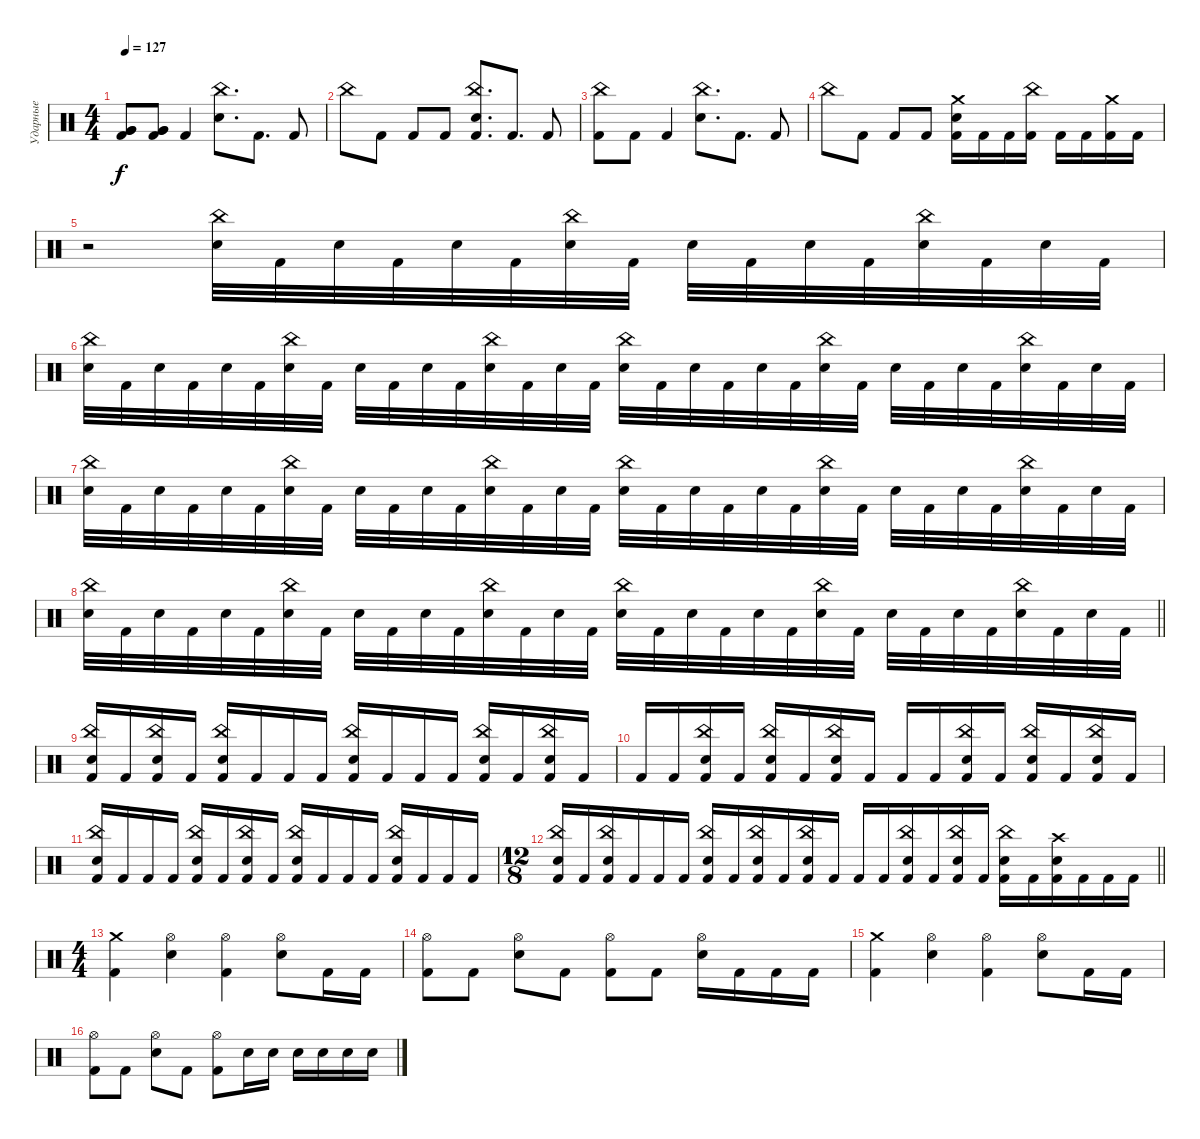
\track ("Ударные" "Ударные") {instrument percussion}
\staff {score}
\articulation defaults
\ts (4 4)
\section ("" "")
\tempo 127
\clef neutral
\ks c
("Very Low Tom (hit)" "Very Low Tom (hit)" "Kick (hit) 2").8{dy f} ("Very Low Tom (hit)" "Very Low Tom (hit)" "Kick (hit) 2").8 "Kick (hit) 2".4 ("China (hit)" "Electric Snare (hit)").8{d} "Kick (hit) 2".8{d} "Kick (hit) 2".8 |
"China (hit)".8 "Kick (hit) 2".8 "Kick (hit) 2".8 "Kick (hit) 2".8 ("China (hit)" "Electric Snare (hit)" "Kick (hit) 2").8{d} "Kick (hit) 2".8{d} "Kick (hit) 2".8 |
("China (hit)" "Kick (hit) 2").8 "Kick (hit) 2".8 "Kick (hit) 2".4 ("China (hit)" "Electric Snare (hit)").8{d} "Kick (hit) 2".8{d} "Kick (hit) 2".8 |
"China (hit)".8 "Kick (hit) 2".8 "Kick (hit) 2".8 "Kick (hit) 2".8 ("Crash medium (hit)" "Electric Snare (hit)" "Kick (hit) 2").16 "Kick (hit) 2".16 "Kick (hit) 2".16 ("China (hit)" "Kick (hit) 2").16 "Kick (hit) 2".16 "Kick (hit) 2".16 ("Crash medium (hit)" "Kick (hit) 2").16 "Kick (hit) 2".16 |
r.2 ("China (hit)" "Electric Snare (hit)").32 "Kick (hit) 2".32 "Electric Snare (hit)".32 "Kick (hit) 2".32 "Electric Snare (hit)".32 "Kick (hit) 2".32 ("China (hit)" "Electric Snare (hit)").32 "Kick (hit) 2".32 "Electric Snare (hit)".32 "Kick (hit) 2".32 "Electric Snare (hit)".32 "Kick (hit) 2".32 ("China (hit)" "Electric Snare (hit)").32 "Kick (hit) 2".32 "Electric Snare (hit)".32 "Kick (hit) 2".32 |
("China (hit)" "Electric Snare (hit)").32 "Kick (hit) 2".32 "Electric Snare (hit)".32 "Kick (hit) 2".32 "Electric Snare (hit)".32 "Kick (hit) 2".32 ("China (hit)" "Electric Snare (hit)").32 "Kick (hit) 2".32 "Electric Snare (hit)".32 "Kick (hit) 2".32 "Electric Snare (hit)".32 "Kick (hit) 2".32 ("China (hit)" "Electric Snare (hit)").32 "Kick (hit) 2".32 "Electric Snare (hit)".32 "Kick (hit) 2".32 ("China (hit)" "Electric Snare (hit)").32 "Kick (hit) 2".32 "Electric Snare (hit)".32 "Kick (hit) 2".32 "Electric Snare (hit)".32 "Kick (hit) 2".32 ("China (hit)" "Electric Snare (hit)").32 "Kick (hit) 2".32 "Electric Snare (hit)".32 "Kick (hit) 2".32 "Electric Snare (hit)".32 "Kick (hit) 2".32 ("China (hit)" "Electric Snare (hit)").32 "Kick (hit) 2".32 "Electric Snare (hit)".32 "Kick (hit) 2".32 |
("China (hit)" "Electric Snare (hit)").32 "Kick (hit) 2".32 "Electric Snare (hit)".32 "Kick (hit) 2".32 "Electric Snare (hit)".32 "Kick (hit) 2".32 ("China (hit)" "Electric Snare (hit)").32 "Kick (hit) 2".32 "Electric Snare (hit)".32 "Kick (hit) 2".32 "Electric Snare (hit)".32 "Kick (hit) 2".32 ("China (hit)" "Electric Snare (hit)").32 "Kick (hit) 2".32 "Electric Snare (hit)".32 "Kick (hit) 2".32 ("China (hit)" "Electric Snare (hit)").32 "Kick (hit) 2".32 "Electric Snare (hit)".32 "Kick (hit) 2".32 "Electric Snare (hit)".32 "Kick (hit) 2".32 ("China (hit)" "Electric Snare (hit)").32 "Kick (hit) 2".32 "Electric Snare (hit)".32 "Kick (hit) 2".32 "Electric Snare (hit)".32 "Kick (hit) 2".32 ("China (hit)" "Electric Snare (hit)").32 "Kick (hit) 2".32 "Electric Snare (hit)".32 "Kick (hit) 2".32 |
\barLineRight lightlight
("China (hit)" "Electric Snare (hit)").32 "Kick (hit) 2".32 "Electric Snare (hit)".32 "Kick (hit) 2".32 "Electric Snare (hit)".32 "Kick (hit) 2".32 ("China (hit)" "Electric Snare (hit)").32 "Kick (hit) 2".32 "Electric Snare (hit)".32 "Kick (hit) 2".32 "Electric Snare (hit)".32 "Kick (hit) 2".32 ("China (hit)" "Electric Snare (hit)").32 "Kick (hit) 2".32 "Electric Snare (hit)".32 "Kick (hit) 2".32 ("China (hit)" "Electric Snare (hit)").32 "Kick (hit) 2".32 "Electric Snare (hit)".32 "Kick (hit) 2".32 "Electric Snare (hit)".32 "Kick (hit) 2".32 ("China (hit)" "Electric Snare (hit)").32 "Kick (hit) 2".32 "Electric Snare (hit)".32 "Kick (hit) 2".32 "Electric Snare (hit)".32 "Kick (hit) 2".32 ("China (hit)" "Electric Snare (hit)").32 "Kick (hit) 2".32 "Electric Snare (hit)".32 "Kick (hit) 2".32 |
\section ("" "")
("China (hit)" "Electric Snare (hit)" "Kick (hit) 2").16 "Kick (hit) 2".16 ("China (hit)" "Electric Snare (hit)" "Kick (hit) 2").16 "Kick (hit) 2".16 ("China (hit)" "Electric Snare (hit)" "Kick (hit) 2").16 "Kick (hit) 2".16 "Kick (hit) 2".16 "Kick (hit) 2".16 ("China (hit)" "Electric Snare (hit)" "Kick (hit) 2").16 "Kick (hit) 2".16 "Kick (hit) 2".16 "Kick (hit) 2".16 ("China (hit)" "Electric Snare (hit)" "Kick (hit) 2").16 "Kick (hit) 2".16 ("China (hit)" "Electric Snare (hit)" "Kick (hit) 2").16 "Kick (hit) 2".16 |
"Kick (hit) 2".16 "Kick (hit) 2".16 ("China (hit)" "Electric Snare (hit)" "Kick (hit) 2").16 "Kick (hit) 2".16 ("China (hit)" "Electric Snare (hit)" "Kick (hit) 2").16 "Kick (hit) 2".16 ("China (hit)" "Electric Snare (hit)" "Kick (hit) 2").16 "Kick (hit) 2".16 "Kick (hit) 2".16 "Kick (hit) 2".16 ("China (hit)" "Electric Snare (hit)" "Kick (hit) 2").16 "Kick (hit) 2".16 ("China (hit)" "Electric Snare (hit)" "Kick (hit) 2").16 "Kick (hit) 2".16 ("China (hit)" "Electric Snare (hit)" "Kick (hit) 2").16 "Kick (hit) 2".16 |
("China (hit)" "Electric Snare (hit)" "Kick (hit) 2").16 "Kick (hit) 2".16 "Kick (hit) 2".16 "Kick (hit) 2".16 ("China (hit)" "Electric Snare (hit)" "Kick (hit) 2").16 "Kick (hit) 2".16 ("China (hit)" "Electric Snare (hit)" "Kick (hit) 2").16 "Kick (hit) 2".16 ("China (hit)" "Electric Snare (hit)" "Kick (hit) 2").16 "Kick (hit) 2".16 "Kick (hit) 2".16 "Kick (hit) 2".16 ("China (hit)" "Electric Snare (hit)" "Kick (hit) 2").16 "Kick (hit) 2".16 "Kick (hit) 2".16 "Kick (hit) 2".16 |
\ts (12 8)
\barLineRight lightlight
("China (hit)" "Electric Snare (hit)" "Kick (hit) 2").16 "Kick (hit) 2".16 ("China (hit)" "Electric Snare (hit)" "Kick (hit) 2").16 "Kick (hit) 2".16 "Kick (hit) 2".16 "Kick (hit) 2".16 ("China (hit)" "Electric Snare (hit)" "Kick (hit) 2").16 "Kick (hit) 2".16 ("China (hit)" "Electric Snare (hit)" "Kick (hit) 2").16 "Kick (hit) 2".16 ("China (hit)" "Electric Snare (hit)" "Kick (hit) 2").16 "Kick (hit) 2".16 "Kick (hit) 2".16 "Kick (hit) 2".16 ("China (hit)" "Electric Snare (hit)" "Kick (hit) 2").16 "Kick (hit) 2".16 ("China (hit)" "Electric Snare (hit)" "Kick (hit) 2").16 "Kick (hit) 2".16 ("China (hit)" "Electric Snare (hit)" "Kick (hit) 2").16 "Kick (hit) 2".16 ("Crash high (hit)" "Electric Snare (hit)" "Kick (hit) 2").16 "Kick (hit) 2".16 "Kick (hit) 2".16 "Kick (hit) 2".16 |
\ts (4 4)
\section ("" "")
("Crash medium (hit)" "Kick (hit) 2").4 ("Hi-Hat (open)" "Electric Snare (hit)").4 ("Hi-Hat (open)" "Kick (hit) 2").4 ("Hi-Hat (open)" "Electric Snare (hit)").8 "Kick (hit) 2".16 "Kick (hit) 2".16 |
("Hi-Hat (open)" "Kick (hit) 2").8 "Kick (hit) 2".8 ("Hi-Hat (open)" "Electric Snare (hit)").8 "Kick (hit) 2".8 ("Hi-Hat (open)" "Kick (hit) 2").8 "Kick (hit) 2".8 ("Hi-Hat (open)" "Electric Snare (hit)").16 "Kick (hit) 2".16 "Kick (hit) 2".16 "Kick (hit) 2".16 |
("Crash medium (hit)" "Kick (hit) 2").4 ("Hi-Hat (open)" "Electric Snare (hit)").4 ("Hi-Hat (open)" "Kick (hit) 2").4 ("Hi-Hat (open)" "Electric Snare (hit)").8 "Kick (hit) 2".16 "Kick (hit) 2".16 |
("Hi-Hat (open)" "Kick (hit) 2").8 "Kick (hit) 2".8 ("Hi-Hat (open)" "Electric Snare (hit)").8 "Kick (hit) 2".8 ("Hi-Hat (open)" "Kick (hit) 2").8 "Electric Snare (hit)".16 "Electric Snare (hit)".16 "Electric Snare (hit)".16 "Electric Snare (hit)".16 "Electric Snare (hit)".16 "Electric Snare (hit)".16
